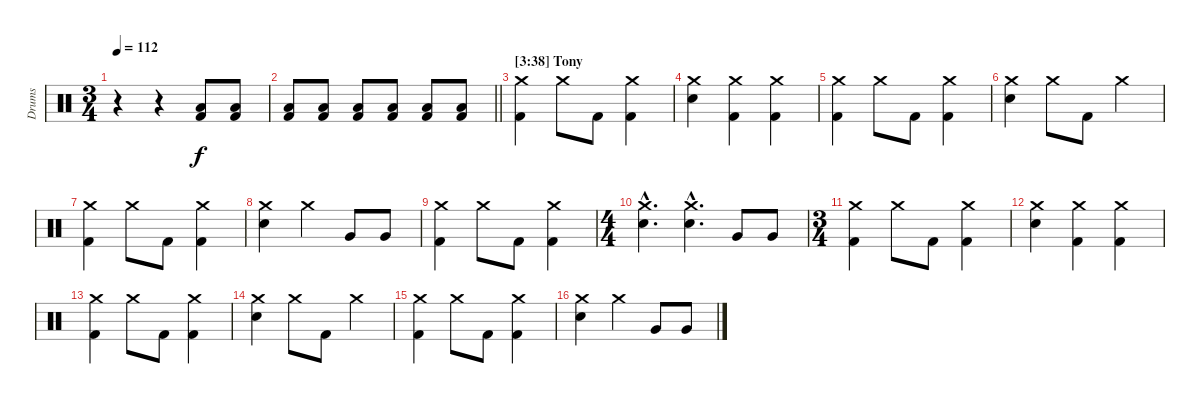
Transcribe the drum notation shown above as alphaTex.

\track ("Drums" "Drums") {instrument percussion}
\staff {score}
\articulation defaults
\ts (3 4)
\tempo 112
\clef neutral
\ks c
r.4{dy f volume 4} r.4 ("Low Tom (hit)" "Kick (hit) 2").8{volume 16} ("Low Tom (hit)" "Kick (hit) 2").8 |
\barLineRight lightlight
("Low Tom (hit)" "Kick (hit) 2").8 ("Low Tom (hit)" "Kick (hit) 2").8 ("Low Tom (hit)" "Kick (hit) 2").8 ("Low Tom (hit)" "Kick (hit) 2").8 ("Low Tom (hit)" "Kick (hit) 2").8 ("Low Tom (hit)" "Kick (hit) 2").8 |
\section ("" "[3:38] Tony")
("Crash medium (hit)" "Kick (hit) 2").4 "Crash medium (hit)".8 "Kick (hit) 2".8 ("Crash medium (hit)" "Kick (hit) 2").4 |
("Crash medium (hit)" "Electric Snare (hit)").4 ("Crash medium (hit)" "Kick (hit) 2").4 ("Crash medium (hit)" "Kick (hit) 2").4 |
("Crash medium (hit)" "Kick (hit) 2").4 "Crash medium (hit)".8 "Kick (hit) 2".8 ("Crash medium (hit)" "Kick (hit) 2").4 |
("Crash medium (hit)" "Electric Snare (hit)").4 "Crash medium (hit)".8 "Kick (hit) 2".8 "Crash medium (hit)".4 |
("Crash medium (hit)" "Kick (hit) 2").4 "Crash medium (hit)".8 "Kick (hit) 2".8 ("Crash medium (hit)" "Kick (hit) 2").4 |
("Crash medium (hit)" "Electric Snare (hit)").4 "Crash medium (hit)".4 "Very Low Tom (hit)".8 "Very Low Tom (hit)".8 |
("Crash medium (hit)" "Kick (hit) 2").4 "Crash medium (hit)".8 "Kick (hit) 2".8 ("Crash medium (hit)" "Kick (hit) 2").4 |
\ts (4 4)
("Crash medium (hit)"{hac} "Electric Snare (hit)"{hac}).4{d} ("Crash medium (hit)"{hac} "Electric Snare (hit)"{hac}).4{d} "Very Low Tom (hit)".8 "Very Low Tom (hit)".8 |
\ts (3 4)
("Crash medium (hit)" "Kick (hit) 2").4 "Crash medium (hit)".8 "Kick (hit) 2".8 ("Crash medium (hit)" "Kick (hit) 2").4 |
("Crash medium (hit)" "Electric Snare (hit)").4 ("Crash medium (hit)" "Kick (hit) 2").4 ("Crash medium (hit)" "Kick (hit) 2").4 |
("Crash medium (hit)" "Kick (hit) 2").4 "Crash medium (hit)".8 "Kick (hit) 2".8 ("Crash medium (hit)" "Kick (hit) 2").4 |
("Crash medium (hit)" "Electric Snare (hit)").4 "Crash medium (hit)".8 "Kick (hit) 2".8 "Crash medium (hit)".4 |
("Crash medium (hit)" "Kick (hit) 2").4 "Crash medium (hit)".8 "Kick (hit) 2".8 ("Crash medium (hit)" "Kick (hit) 2").4 |
("Crash medium (hit)" "Electric Snare (hit)").4 "Crash medium (hit)".4 "Very Low Tom (hit)".8 "Very Low Tom (hit)".8
